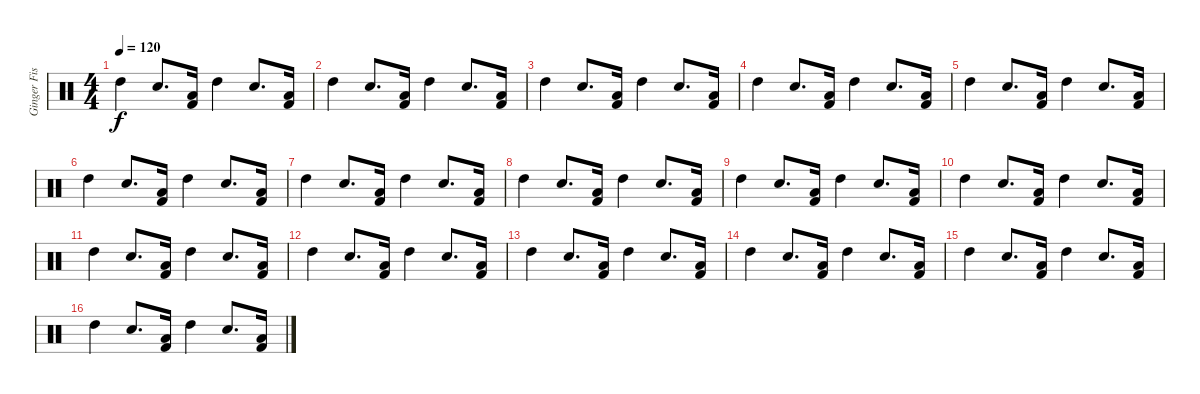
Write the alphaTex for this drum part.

\track ("Ginger Fish" "Ginger Fis") {instrument percussion}
\staff {score}
\articulation defaults
\ts (4 4)
\tempo 120
\clef neutral
\ks c "High Tom (hit)".4{dy f} "Electric Snare (hit)".8{d}
("Low Tom (hit)" "Kick (hit) 2").16 "High Tom (hit)".4 "Electric Snare (hit)".8{d} ("Low Tom (hit)" "Kick (hit) 2").16 |
"High Tom (hit)".4 "Electric Snare (hit)".8{d} ("Low Tom (hit)" "Kick (hit) 2").16 "High Tom (hit)".4 "Electric Snare (hit)".8{d} ("Low Tom (hit)" "Kick (hit) 2").16 |
"High Tom (hit)".4 "Electric Snare (hit)".8{d} ("Low Tom (hit)" "Kick (hit) 2").16 "High Tom (hit)".4 "Electric Snare (hit)".8{d} ("Low Tom (hit)" "Kick (hit) 2").16 |
"High Tom (hit)".4 "Electric Snare (hit)".8{d} ("Low Tom (hit)" "Kick (hit) 2").16 "High Tom (hit)".4 "Electric Snare (hit)".8{d} ("Low Tom (hit)" "Kick (hit) 2").16 |
"High Tom (hit)".4 "Electric Snare (hit)".8{d} ("Low Tom (hit)" "Kick (hit) 2").16 "High Tom (hit)".4 "Electric Snare (hit)".8{d} ("Low Tom (hit)" "Kick (hit) 2").16 |
"High Tom (hit)".4 "Electric Snare (hit)".8{d} ("Low Tom (hit)" "Kick (hit) 2").16 "High Tom (hit)".4 "Electric Snare (hit)".8{d} ("Low Tom (hit)" "Kick (hit) 2").16 |
"High Tom (hit)".4 "Electric Snare (hit)".8{d} ("Low Tom (hit)" "Kick (hit) 2").16 "High Tom (hit)".4 "Electric Snare (hit)".8{d} ("Low Tom (hit)" "Kick (hit) 2").16 |
"High Tom (hit)".4 "Electric Snare (hit)".8{d} ("Low Tom (hit)" "Kick (hit) 2").16 "High Tom (hit)".4 "Electric Snare (hit)".8{d} ("Low Tom (hit)" "Kick (hit) 2").16 |
"High Tom (hit)".4 "Electric Snare (hit)".8{d} ("Low Tom (hit)" "Kick (hit) 2").16 "High Tom (hit)".4 "Electric Snare (hit)".8{d} ("Low Tom (hit)" "Kick (hit) 2").16 |
"High Tom (hit)".4 "Electric Snare (hit)".8{d} ("Low Tom (hit)" "Kick (hit) 2").16 "High Tom (hit)".4 "Electric Snare (hit)".8{d} ("Low Tom (hit)" "Kick (hit) 2").16 |
"High Tom (hit)".4 "Electric Snare (hit)".8{d} ("Low Tom (hit)" "Kick (hit) 2").16 "High Tom (hit)".4 "Electric Snare (hit)".8{d} ("Low Tom (hit)" "Kick (hit) 2").16 |
"High Tom (hit)".4 "Electric Snare (hit)".8{d} ("Low Tom (hit)" "Kick (hit) 2").16 "High Tom (hit)".4 "Electric Snare (hit)".8{d} ("Low Tom (hit)" "Kick (hit) 2").16 |
"High Tom (hit)".4 "Electric Snare (hit)".8{d} ("Low Tom (hit)" "Kick (hit) 2").16 "High Tom (hit)".4 "Electric Snare (hit)".8{d} ("Low Tom (hit)" "Kick (hit) 2").16 |
"High Tom (hit)".4 "Electric Snare (hit)".8{d} ("Low Tom (hit)" "Kick (hit) 2").16 "High Tom (hit)".4 "Electric Snare (hit)".8{d} ("Low Tom (hit)" "Kick (hit) 2").16 |
"High Tom (hit)".4 "Electric Snare (hit)".8{d} ("Low Tom (hit)" "Kick (hit) 2").16 "High Tom (hit)".4 "Electric Snare (hit)".8{d} ("Low Tom (hit)" "Kick (hit) 2").16 |
"High Tom (hit)".4 "Electric Snare (hit)".8{d} ("Low Tom (hit)" "Kick (hit) 2").16 "High Tom (hit)".4 "Electric Snare (hit)".8{d} ("Low Tom (hit)" "Kick (hit) 2").16
